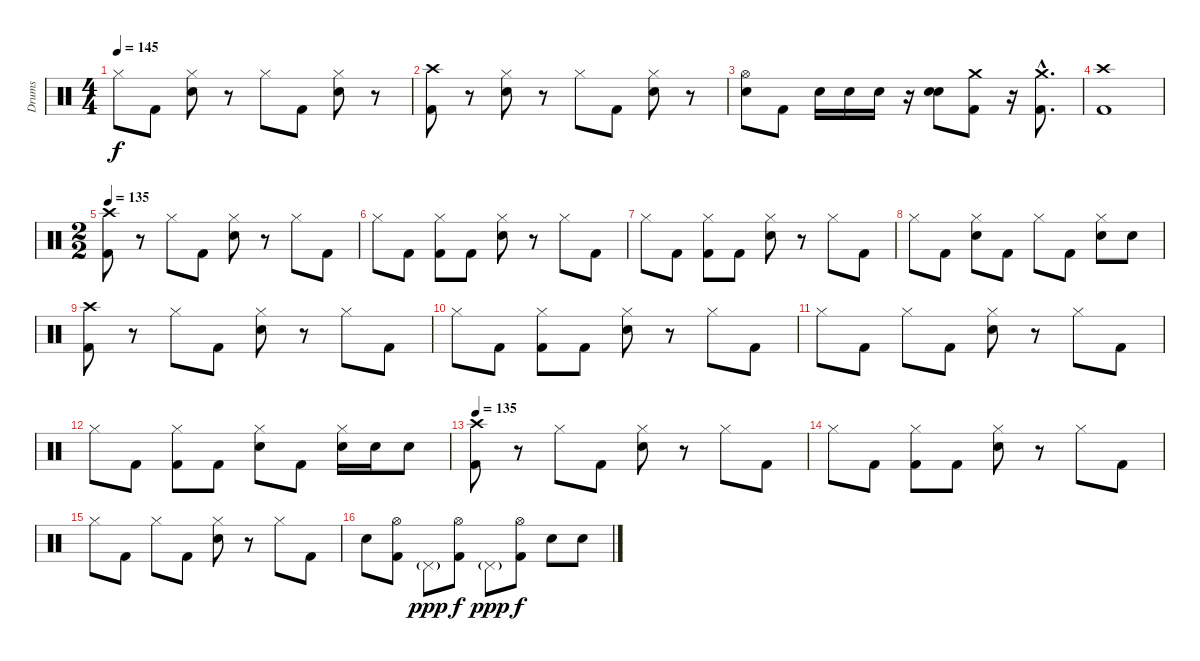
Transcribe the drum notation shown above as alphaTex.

\track ("Drums" "Drums") {instrument percussion}
\staff {score}
\articulation defaults
\ts (4 4)
\tempo 145
\clef neutral
\ks c "Hi-Hat (closed)".8{dy f} "Kick (hit) 2".8
("Hi-Hat (closed)" "Snare (hit) 2").8 r.8 "Hi-Hat (closed)".8 "Kick (hit) 2".8 ("Hi-Hat (closed)" "Snare (hit) 2").8 r.8 |
("Crash high (hit)" "Kick (hit) 2").8 r.8 ("Hi-Hat (closed)" "Snare (hit) 2").8 r.8 "Hi-Hat (closed)".8 "Kick (hit) 2".8 ("Hi-Hat (closed)" "Snare (hit) 2").8 r.8 |
("Hi-Hat (open)" "Snare (hit) 2").8 "Kick (hit) 2".8 "Snare (hit) 2".16 "Snare (hit) 2".16 "Snare (hit) 2".16 r.16 ("Snare (hit) 2" "Snare (hit) 2").8{bd 480} ("Crash medium (hit)" "Kick (hit) 2").8 r.16 ("Crash medium (hit)"{hac} "Kick (hit) 2"{hac}).8{d} |
("Crash high (hit)" "Kick (hit) 2").1 |
\ts (2 2)
\tempo 120
\tempo 135
("Crash high (hit)" "Kick (hit) 2").8 r.8 "Hi-Hat (closed)".8 "Kick (hit) 2".8 ("Hi-Hat (closed)" "Snare (hit) 2").8 r.8 "Hi-Hat (closed)".8 "Kick (hit) 2".8 |
"Hi-Hat (closed)".8 "Kick (hit) 2".8 ("Hi-Hat (closed)" "Kick (hit) 2").8 "Kick (hit) 2".8 ("Hi-Hat (closed)" "Snare (hit) 2").8 r.8 "Hi-Hat (closed)".8 "Kick (hit) 2".8 |
"Hi-Hat (closed)".8 "Kick (hit) 2".8 ("Hi-Hat (closed)" "Kick (hit) 2").8 "Kick (hit) 2".8 ("Hi-Hat (closed)" "Snare (hit) 2").8 r.8 "Hi-Hat (closed)".8 "Kick (hit) 2".8 |
"Hi-Hat (closed)".8 "Kick (hit) 2".8 ("Hi-Hat (closed)" "Snare (hit) 2").8 "Kick (hit) 2".8 "Hi-Hat (closed)".8 "Kick (hit) 2".8 ("Hi-Hat (closed)" "Snare (hit) 2").8 "Snare (hit) 2".8 |
("Crash high (hit)" "Kick (hit) 2").8 r.8 "Hi-Hat (closed)".8 "Kick (hit) 2".8 ("Hi-Hat (closed)" "Snare (hit) 2").8 r.8 "Hi-Hat (closed)".8 "Kick (hit) 2".8 |
"Hi-Hat (closed)".8 "Kick (hit) 2".8 ("Hi-Hat (closed)" "Kick (hit) 2").8 "Kick (hit) 2".8 ("Hi-Hat (closed)" "Snare (hit) 2").8 r.8 "Hi-Hat (closed)".8 "Kick (hit) 2".8 |
"Hi-Hat (closed)".8 "Kick (hit) 2".8 "Hi-Hat (closed)".8 "Kick (hit) 2".8 ("Hi-Hat (closed)" "Snare (hit) 2").8 r.8 "Hi-Hat (closed)".8 "Kick (hit) 2".8 |
"Hi-Hat (closed)".8 "Kick (hit) 2".8 ("Hi-Hat (closed)" "Kick (hit) 2").8 "Kick (hit) 2".8 ("Hi-Hat (closed)" "Snare (hit) 2").8 "Kick (hit) 2".8 ("Hi-Hat (closed)" "Snare (hit) 2").16 "Snare (hit) 2".16 "Snare (hit) 2".8 |
\tempo 135
("Crash high (hit)" "Kick (hit) 2").8 r.8 "Hi-Hat (closed)".8 "Kick (hit) 2".8 ("Hi-Hat (closed)" "Snare (hit) 2").8 r.8 "Hi-Hat (closed)".8 "Kick (hit) 2".8 |
"Hi-Hat (closed)".8 "Kick (hit) 2".8 ("Hi-Hat (closed)" "Kick (hit) 2").8 "Kick (hit) 2".8 ("Hi-Hat (closed)" "Snare (hit) 2").8 r.8 "Hi-Hat (closed)".8 "Kick (hit) 2".8 |
"Hi-Hat (closed)".8 "Kick (hit) 2".8 "Hi-Hat (closed)".8 "Kick (hit) 2".8 ("Hi-Hat (closed)" "Snare (hit) 2").8 r.8 "Hi-Hat (closed)".8 "Kick (hit) 2".8 |
"Snare (hit) 2".8 ("Hi-Hat (open)" "Kick (hit) 2").8 "Pedal Hi-Hat (hit)"{g}.8{dy ppp} ("Hi-Hat (open)" "Kick (hit) 2").8{dy f} "Pedal Hi-Hat (hit)"{g}.8{dy ppp} ("Hi-Hat (open)" "Kick (hit) 2").8{dy f} "Snare (hit) 2".8 "Snare (hit) 2".8
